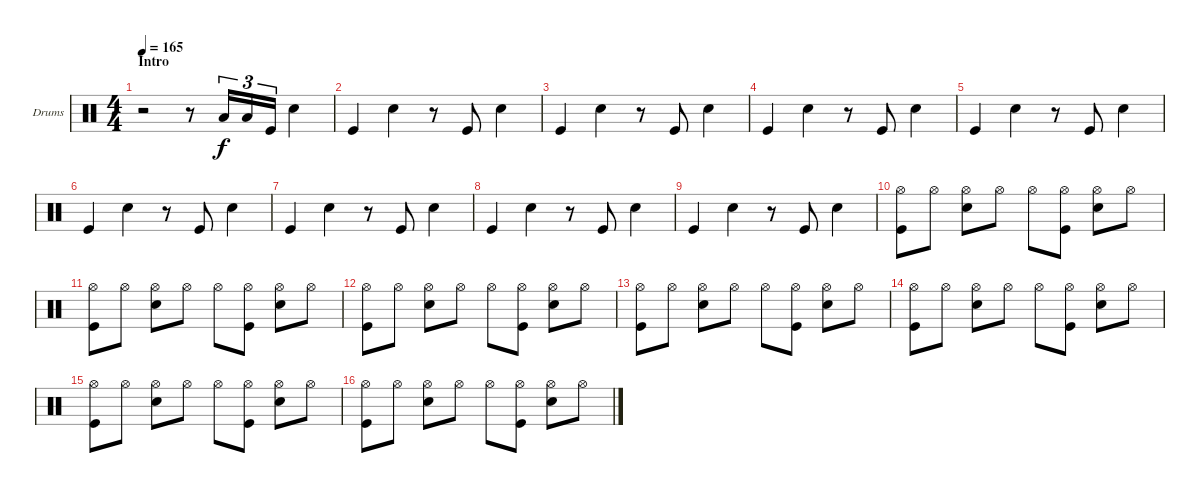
\bracketExtendMode groupsimilarinstruments
\firstSystemTrackNameOrientation horizontal
\otherSystemsTrackNameOrientation horizontal
\track ("Fabrizio" "Drums") {instrument percussion}
\staff {score}
\articulation defaults
\ts (4 4)
\beaming (8 2 2 2 2)
\section ("" "Intro")
\tempo 165
\clef neutral
\ks c
r.2{dy f} r.8 "Low Tom (hit)".16{tu (3 2)} "Low Tom (hit)".16{tu (3 2)} "Kick (hit)".16{tu (3 2)} "Snare (hit) 2".4 |
"Kick (hit)".4 "Snare (hit) 2".4 r.8 "Kick (hit)".8 "Snare (hit) 2".4 |
"Kick (hit)".4 "Snare (hit) 2".4 r.8 "Kick (hit)".8 "Snare (hit) 2".4 |
"Kick (hit)".4 "Snare (hit) 2".4 r.8 "Kick (hit)".8 "Snare (hit) 2".4 |
"Kick (hit)".4 "Snare (hit) 2".4 r.8 "Kick (hit)".8 "Snare (hit) 2".4 |
"Kick (hit)".4 "Snare (hit) 2".4 r.8 "Kick (hit)".8 "Snare (hit) 2".4 |
"Kick (hit)".4 "Snare (hit) 2".4 r.8 "Kick (hit)".8 "Snare (hit) 2".4 |
"Kick (hit)".4 "Snare (hit) 2".4 r.8 "Kick (hit)".8 "Snare (hit) 2".4 |
"Kick (hit)".4 "Snare (hit) 2".4 r.8 "Kick (hit)".8 "Snare (hit) 2".4 |
("Hi-Hat (open)" "Kick (hit)").8 "Hi-Hat (open)".8 ("Hi-Hat (open)" "Snare (hit) 2").8 "Hi-Hat (open)".8 "Hi-Hat (open)".8 ("Kick (hit)" "Hi-Hat (open)").8 ("Hi-Hat (open)" "Snare (hit) 2").8 "Hi-Hat (open)".8 |
("Kick (hit)" "Hi-Hat (open)").8 "Hi-Hat (open)".8 ("Snare (hit) 2" "Hi-Hat (open)").8 "Hi-Hat (open)".8 "Hi-Hat (open)".8 ("Kick (hit)" "Hi-Hat (open)").8 ("Snare (hit) 2" "Hi-Hat (open)").8 "Hi-Hat (open)".8 |
("Kick (hit)" "Hi-Hat (open)").8 "Hi-Hat (open)".8 ("Snare (hit) 2" "Hi-Hat (open)").8 "Hi-Hat (open)".8 "Hi-Hat (open)".8 ("Kick (hit)" "Hi-Hat (open)").8 ("Snare (hit) 2" "Hi-Hat (open)").8 "Hi-Hat (open)".8 |
("Kick (hit)" "Hi-Hat (open)").8 "Hi-Hat (open)".8 ("Snare (hit) 2" "Hi-Hat (open)").8 "Hi-Hat (open)".8 "Hi-Hat (open)".8 ("Kick (hit)" "Hi-Hat (open)").8 ("Snare (hit) 2" "Hi-Hat (open)").8 "Hi-Hat (open)".8 |
("Kick (hit)" "Hi-Hat (open)").8 "Hi-Hat (open)".8 ("Snare (hit) 2" "Hi-Hat (open)").8 "Hi-Hat (open)".8 "Hi-Hat (open)".8 ("Kick (hit)" "Hi-Hat (open)").8 ("Snare (hit) 2" "Hi-Hat (open)").8 "Hi-Hat (open)".8 |
("Kick (hit)" "Hi-Hat (open)").8 "Hi-Hat (open)".8 ("Snare (hit) 2" "Hi-Hat (open)").8 "Hi-Hat (open)".8 "Hi-Hat (open)".8 ("Kick (hit)" "Hi-Hat (open)").8 ("Snare (hit) 2" "Hi-Hat (open)").8 "Hi-Hat (open)".8 |
("Kick (hit)" "Hi-Hat (open)").8 "Hi-Hat (open)".8 ("Snare (hit) 2" "Hi-Hat (open)").8 "Hi-Hat (open)".8 "Hi-Hat (open)".8 ("Kick (hit)" "Hi-Hat (open)").8 ("Snare (hit) 2" "Hi-Hat (open)").8 "Hi-Hat (open)".8
